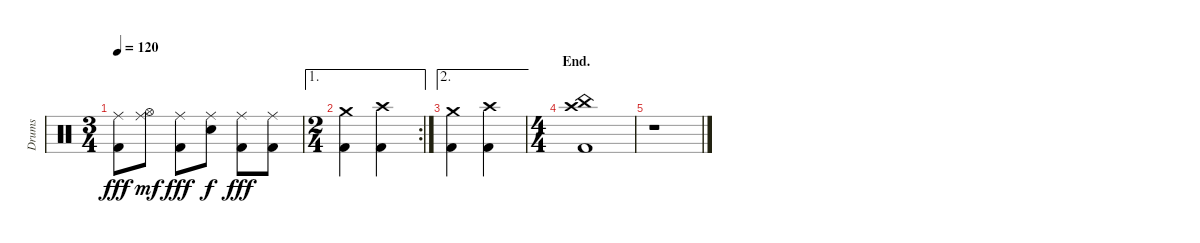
\track ("Drums" "Drums") {instrument percussion}
\staff {score}
\articulation defaults
\ts (3 4)
\tempo 120
\clef neutral
\ks c
("Ride (middle)" "Kick (hit) 2").8{dy fff} ("Ride (middle)" "Hi-Hat (open)").8{dy mf} ("Ride (middle)" "Kick (hit) 2").8{dy fff} ("Ride (middle)" "Electric Snare (hit)").8{dy f} ("Ride (middle)" "Kick (hit) 2").8{dy fff} ("Ride (middle)" "Kick (hit) 2").8 |
\ae 1
\rc 2
\ts (2 4)
("Crash medium (hit)" "Kick (hit) 2").4 ("Crash high (hit)" "Kick (hit) 2").4 |
\ae 2
("Crash medium (hit)" "Kick (hit) 2").4 ("Crash high (hit)" "Kick (hit) 2").4 |
\ts (4 4)
\section ("" "End.")
("Crash high (hit)" "China (hit)" "Kick (hit) 2").1 |
r.1
